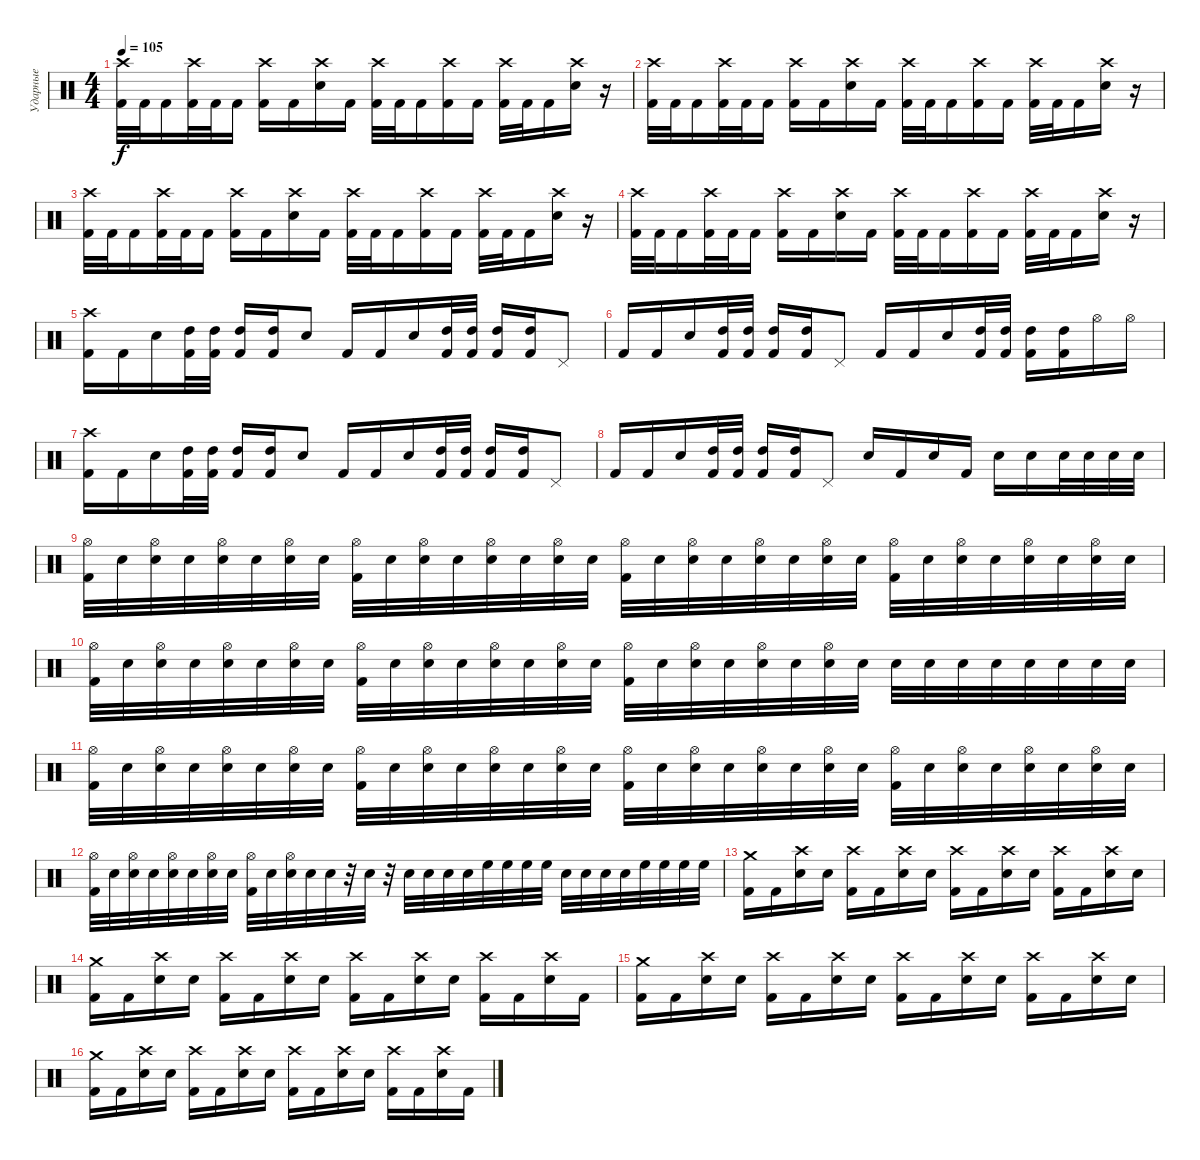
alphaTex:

\track ("Ударные" "Ударные") {instrument percussion}
\staff {score}
\articulation defaults
\ts (4 4)
\tempo 105
\clef neutral
\ks c
("Crash high (hit)" "Kick (hit) 2").32{dy f} "Kick (hit) 2".32 "Kick (hit) 2".16 ("Crash high (hit)" "Kick (hit) 2").32 "Kick (hit) 2".32 "Kick (hit) 2".16 ("Crash high (hit)" "Kick (hit) 2").16 "Kick (hit) 2".16 ("Crash high (hit)" "Electric Snare (hit)").16 "Kick (hit) 2".16 ("Crash high (hit)" "Kick (hit) 2").32 "Kick (hit) 2".32 "Kick (hit) 2".16 ("Crash high (hit)" "Kick (hit) 2").16 "Kick (hit) 2".16 ("Crash high (hit)" "Kick (hit) 2").32 "Kick (hit) 2".32 "Kick (hit) 2".16 ("Crash high (hit)" "Electric Snare (hit)").16 r.16 |
("Crash high (hit)" "Kick (hit) 2").32 "Kick (hit) 2".32 "Kick (hit) 2".16 ("Crash high (hit)" "Kick (hit) 2").32 "Kick (hit) 2".32 "Kick (hit) 2".16 ("Crash high (hit)" "Kick (hit) 2").16 "Kick (hit) 2".16 ("Crash high (hit)" "Electric Snare (hit)").16 "Kick (hit) 2".16 ("Crash high (hit)" "Kick (hit) 2").32 "Kick (hit) 2".32 "Kick (hit) 2".16 ("Crash high (hit)" "Kick (hit) 2").16 "Kick (hit) 2".16 ("Crash high (hit)" "Kick (hit) 2").32 "Kick (hit) 2".32 "Kick (hit) 2".16 ("Crash high (hit)" "Electric Snare (hit)").16 r.16 |
("Crash high (hit)" "Kick (hit) 2").32 "Kick (hit) 2".32 "Kick (hit) 2".16 ("Crash high (hit)" "Kick (hit) 2").32 "Kick (hit) 2".32 "Kick (hit) 2".16 ("Crash high (hit)" "Kick (hit) 2").16 "Kick (hit) 2".16 ("Crash high (hit)" "Electric Snare (hit)").16 "Kick (hit) 2".16 ("Crash high (hit)" "Kick (hit) 2").32 "Kick (hit) 2".32 "Kick (hit) 2".16 ("Crash high (hit)" "Kick (hit) 2").16 "Kick (hit) 2".16 ("Crash high (hit)" "Kick (hit) 2").32 "Kick (hit) 2".32 "Kick (hit) 2".16 ("Crash high (hit)" "Electric Snare (hit)").16 r.16 |
("Crash high (hit)" "Kick (hit) 2").32 "Kick (hit) 2".32 "Kick (hit) 2".16 ("Crash high (hit)" "Kick (hit) 2").32 "Kick (hit) 2".32 "Kick (hit) 2".16 ("Crash high (hit)" "Kick (hit) 2").16 "Kick (hit) 2".16 ("Crash high (hit)" "Electric Snare (hit)").16 "Kick (hit) 2".16 ("Crash high (hit)" "Kick (hit) 2").32 "Kick (hit) 2".32 "Kick (hit) 2".16 ("Crash high (hit)" "Kick (hit) 2").16 "Kick (hit) 2".16 ("Crash high (hit)" "Kick (hit) 2").32 "Kick (hit) 2".32 "Kick (hit) 2".16 ("Crash high (hit)" "Electric Snare (hit)").16 r.16 |
("Crash high (hit)" "Kick (hit) 2").16 "Kick (hit) 2".16 "Electric Snare (hit)".16 ("High Tom (hit)" "Kick (hit) 2").32 ("High Tom (hit)" "Kick (hit) 2").32 ("High Tom (hit)" "Kick (hit) 2").16 ("High Tom (hit)" "Kick (hit) 2").16 "Electric Snare (hit)".8 "Kick (hit) 2".16 "Kick (hit) 2".16 "Electric Snare (hit)".16 ("High Tom (hit)" "Kick (hit) 2").32 ("High Tom (hit)" "Kick (hit) 2").32 ("High Tom (hit)" "Kick (hit) 2").16 ("High Tom (hit)" "Kick (hit) 2").16 "Pedal Hi-Hat (hit)".8 |
"Kick (hit) 2".16 "Kick (hit) 2".16 "Electric Snare (hit)".16 ("High Tom (hit)" "Kick (hit) 2").32 ("High Tom (hit)" "Kick (hit) 2").32 ("High Tom (hit)" "Kick (hit) 2").16 ("High Tom (hit)" "Kick (hit) 2").16 "Pedal Hi-Hat (hit)".8 "Kick (hit) 2".16 "Kick (hit) 2".16 "Electric Snare (hit)".16 ("High Tom (hit)" "Kick (hit) 2").32 ("High Tom (hit)" "Kick (hit) 2").32 ("High Tom (hit)" "Kick (hit) 2").16 ("High Tom (hit)" "Kick (hit) 2").16 "Hi-Hat (open)".16 "Hi-Hat (open)".16 |
("Crash high (hit)" "Kick (hit) 2").16 "Kick (hit) 2".16 "Electric Snare (hit)".16 ("High Tom (hit)" "Kick (hit) 2").32 ("High Tom (hit)" "Kick (hit) 2").32 ("High Tom (hit)" "Kick (hit) 2").16 ("High Tom (hit)" "Kick (hit) 2").16 "Electric Snare (hit)".8 "Kick (hit) 2".16 "Kick (hit) 2".16 "Electric Snare (hit)".16 ("High Tom (hit)" "Kick (hit) 2").32 ("High Tom (hit)" "Kick (hit) 2").32 ("High Tom (hit)" "Kick (hit) 2").16 ("High Tom (hit)" "Kick (hit) 2").16 "Pedal Hi-Hat (hit)".8 |
"Kick (hit) 2".16 "Kick (hit) 2".16 "Electric Snare (hit)".16 ("High Tom (hit)" "Kick (hit) 2").32 ("High Tom (hit)" "Kick (hit) 2").32 ("High Tom (hit)" "Kick (hit) 2").16 ("High Tom (hit)" "Kick (hit) 2").16 "Pedal Hi-Hat (hit)".8 "Electric Snare (hit)".16 "Kick (hit) 2".16 "Electric Snare (hit)".16 "Kick (hit) 2".16 "Electric Snare (hit)".16 "Electric Snare (hit)".16 "Electric Snare (hit)".32 "Electric Snare (hit)".32 "Electric Snare (hit)".32 "Electric Snare (hit)".32 |
("Hi-Hat (open)" "Kick (hit) 2").32 "Snare (hit)".32 ("Hi-Hat (open)" "Snare (hit)").32 "Snare (hit)".32 ("Hi-Hat (open)" "Electric Snare (hit)").32 "Snare (hit)".32 ("Hi-Hat (open)" "Snare (hit)").32 "Snare (hit)".32 ("Hi-Hat (open)" "Kick (hit) 2").32 "Snare (hit)".32 ("Hi-Hat (open)" "Snare (hit)").32 "Snare (hit)".32 ("Hi-Hat (open)" "Electric Snare (hit)").32 "Snare (hit)".32 ("Hi-Hat (open)" "Snare (hit)").32 "Snare (hit)".32 ("Hi-Hat (open)" "Kick (hit) 2").32 "Snare (hit)".32 ("Hi-Hat (open)" "Snare (hit)").32 "Snare (hit)".32 ("Hi-Hat (open)" "Electric Snare (hit)").32 "Snare (hit)".32 ("Hi-Hat (open)" "Snare (hit)").32 "Snare (hit)".32 ("Hi-Hat (open)" "Kick (hit) 2").32 "Snare (hit)".32 ("Hi-Hat (open)" "Snare (hit)").32 "Snare (hit)".32 ("Hi-Hat (open)" "Electric Snare (hit)").32 "Snare (hit)".32 ("Hi-Hat (open)" "Snare (hit)").32 "Snare (hit)".32 |
("Hi-Hat (open)" "Kick (hit) 2").32 "Snare (hit)".32 ("Hi-Hat (open)" "Snare (hit)").32 "Snare (hit)".32 ("Hi-Hat (open)" "Electric Snare (hit)").32 "Snare (hit)".32 ("Hi-Hat (open)" "Snare (hit)").32 "Snare (hit)".32 ("Hi-Hat (open)" "Kick (hit) 2").32 "Snare (hit)".32 ("Hi-Hat (open)" "Snare (hit)").32 "Snare (hit)".32 ("Hi-Hat (open)" "Electric Snare (hit)").32 "Snare (hit)".32 ("Hi-Hat (open)" "Snare (hit)").32 "Snare (hit)".32 ("Hi-Hat (open)" "Kick (hit) 2").32 "Snare (hit)".32 ("Hi-Hat (open)" "Snare (hit)").32 "Snare (hit)".32 ("Hi-Hat (open)" "Electric Snare (hit)").32 "Snare (hit)".32 ("Hi-Hat (open)" "Snare (hit)").32 "Snare (hit)".32 "Electric Snare (hit)".32 "Electric Snare (hit)".32 "Electric Snare (hit)".32 "Electric Snare (hit)".32 "Electric Snare (hit)".32 "Electric Snare (hit)".32 "Electric Snare (hit)".32 "Electric Snare (hit)".32 |
("Hi-Hat (open)" "Kick (hit) 2").32 "Snare (hit)".32 ("Hi-Hat (open)" "Snare (hit)").32 "Snare (hit)".32 ("Hi-Hat (open)" "Electric Snare (hit)").32 "Snare (hit)".32 ("Hi-Hat (open)" "Snare (hit)").32 "Snare (hit)".32 ("Hi-Hat (open)" "Kick (hit) 2").32 "Snare (hit)".32 ("Hi-Hat (open)" "Snare (hit)").32 "Snare (hit)".32 ("Hi-Hat (open)" "Electric Snare (hit)").32 "Snare (hit)".32 ("Hi-Hat (open)" "Snare (hit)").32 "Snare (hit)".32 ("Hi-Hat (open)" "Kick (hit) 2").32 "Snare (hit)".32 ("Hi-Hat (open)" "Snare (hit)").32 "Snare (hit)".32 ("Hi-Hat (open)" "Electric Snare (hit)").32 "Snare (hit)".32 ("Hi-Hat (open)" "Snare (hit)").32 "Snare (hit)".32 ("Hi-Hat (open)" "Kick (hit) 2").32 "Snare (hit)".32 ("Hi-Hat (open)" "Snare (hit)").32 "Snare (hit)".32 ("Hi-Hat (open)" "Electric Snare (hit)").32 "Snare (hit)".32 ("Hi-Hat (open)" "Snare (hit)").32 "Snare (hit)".32 |
("Hi-Hat (open)" "Kick (hit) 2").32 "Snare (hit)".32 ("Hi-Hat (open)" "Snare (hit)").32 "Snare (hit)".32 ("Hi-Hat (open)" "Electric Snare (hit)").32 "Snare (hit)".32 ("Hi-Hat (open)" "Snare (hit)").32 "Snare (hit)".32 ("Hi-Hat (open)" "Kick (hit) 2").32 "Snare (hit)".32 ("Hi-Hat (open)" "Snare (hit)").32 "Snare (hit)".32 "Electric Snare (hit)".32 r.32 "Electric Snare (hit)".32 r.32 "Electric Snare (hit)".32 "Electric Snare (hit)".32 "Electric Snare (hit)".32 "Electric Snare (hit)".32 "High Floor Tom (hit)".32 "High Floor Tom (hit)".32 "High Floor Tom (hit)".32 "High Floor Tom (hit)".32 "Electric Snare (hit)".32 "Electric Snare (hit)".32 "Electric Snare (hit)".32 "Electric Snare (hit)".32 "High Floor Tom (hit)".32 "High Floor Tom (hit)".32 "High Floor Tom (hit)".32 "High Floor Tom (hit)".32 |
("Crash medium (hit)" "Kick (hit) 2").16 "Kick (hit) 2".16 ("Crash high (hit)" "Electric Snare (hit)").16 "Snare (hit)".16 ("Crash high (hit)" "Kick (hit) 2").16 "Kick (hit) 2".16 ("Crash high (hit)" "Electric Snare (hit)").16 "Snare (hit)".16 ("Crash high (hit)" "Kick (hit) 2").16 "Kick (hit) 2".16 ("Crash high (hit)" "Electric Snare (hit)").16 "Snare (hit)".16 ("Crash high (hit)" "Kick (hit) 2").16 "Kick (hit) 2".16 ("Crash high (hit)" "Electric Snare (hit)").16 "Snare (hit)".16 |
("Crash medium (hit)" "Kick (hit) 2").16 "Kick (hit) 2".16 ("Crash high (hit)" "Electric Snare (hit)").16 "Snare (hit)".16 ("Crash high (hit)" "Kick (hit) 2").16 "Kick (hit) 2".16 ("Crash high (hit)" "Electric Snare (hit)").16 "Snare (hit)".16 ("Crash high (hit)" "Kick (hit) 2").16 "Kick (hit) 2".16 ("Crash high (hit)" "Electric Snare (hit)").16 "Snare (hit)".16 ("Crash high (hit)" "Kick (hit) 2").16 "Kick (hit) 2".16 ("Crash high (hit)" "Electric Snare (hit)").16 "Kick (hit) 2".16 |
("Crash medium (hit)" "Kick (hit) 2").16 "Kick (hit) 2".16 ("Crash high (hit)" "Electric Snare (hit)").16 "Snare (hit)".16 ("Crash high (hit)" "Kick (hit) 2").16 "Kick (hit) 2".16 ("Crash high (hit)" "Electric Snare (hit)").16 "Snare (hit)".16 ("Crash high (hit)" "Kick (hit) 2").16 "Kick (hit) 2".16 ("Crash high (hit)" "Electric Snare (hit)").16 "Snare (hit)".16 ("Crash high (hit)" "Kick (hit) 2").16 "Kick (hit) 2".16 ("Crash high (hit)" "Electric Snare (hit)").16 "Snare (hit)".16 |
("Crash medium (hit)" "Kick (hit) 2").16 "Kick (hit) 2".16 ("Crash high (hit)" "Electric Snare (hit)").16 "Snare (hit)".16 ("Crash high (hit)" "Kick (hit) 2").16 "Kick (hit) 2".16 ("Crash high (hit)" "Electric Snare (hit)").16 "Snare (hit)".16 ("Crash high (hit)" "Kick (hit) 2").16 "Kick (hit) 2".16 ("Crash high (hit)" "Electric Snare (hit)").16 "Snare (hit)".16 ("Crash high (hit)" "Kick (hit) 2").16 "Kick (hit) 2".16 ("Crash high (hit)" "Electric Snare (hit)").16 "Kick (hit) 2".16
